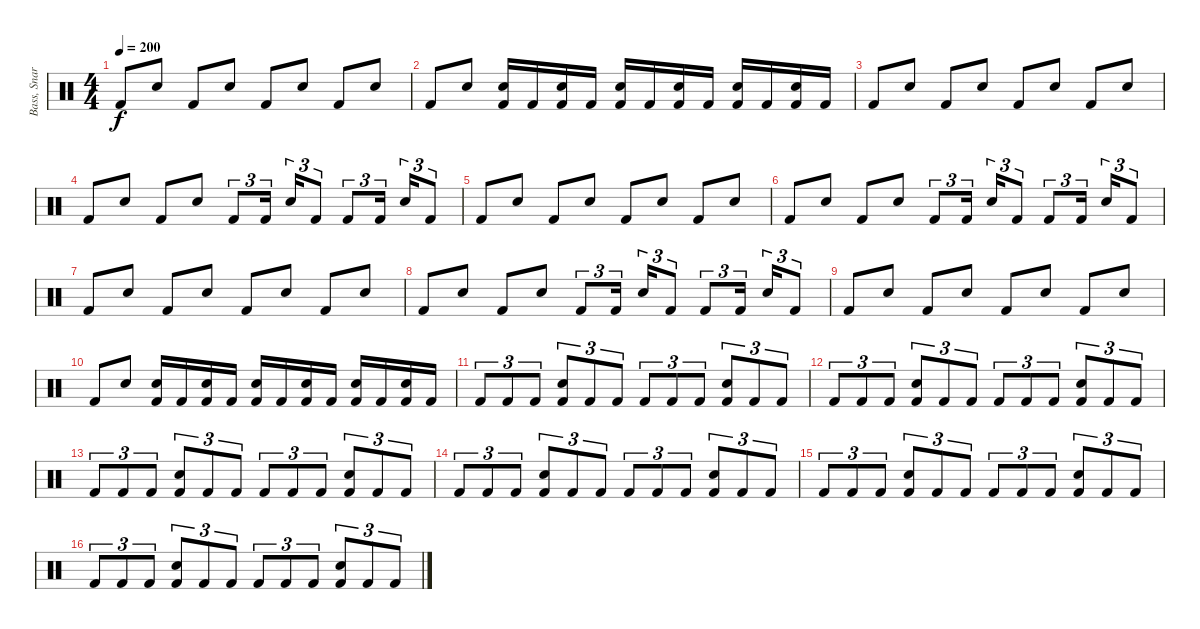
\track ("Bass, Snare & Toms" "Bass, Snar") {instrument percussion}
\staff {score}
\articulation defaults
\ts (4 4)
\tempo 200
\clef neutral
\ks c "Kick (hit) 2".8{dy f} "Electric Snare (hit)".8 "Kick (hit) 2".8 "Electric Snare (hit)".8 "Kick (hit) 2".8 "Electric Snare (hit)".8 "Kick (hit) 2".8 "Electric Snare (hit)".8
|
"Kick (hit) 2".8 "Electric Snare (hit)".8 ("Electric Snare (hit)" "Kick (hit) 2").16 "Kick (hit) 2".16 ("Electric Snare (hit)" "Kick (hit) 2").16 "Kick (hit) 2".16 ("Electric Snare (hit)" "Kick (hit) 2").16 "Kick (hit) 2".16 ("Electric Snare (hit)" "Kick (hit) 2").16 "Kick (hit) 2".16 ("Electric Snare (hit)" "Kick (hit) 2").16 "Kick (hit) 2".16 ("Electric Snare (hit)" "Kick (hit) 2").16 "Kick (hit) 2".16 |
"Kick (hit) 2".8 "Electric Snare (hit)".8 "Kick (hit) 2".8 "Electric Snare (hit)".8 "Kick (hit) 2".8 "Electric Snare (hit)".8 "Kick (hit) 2".8 "Electric Snare (hit)".8 |
"Kick (hit) 2".8 "Electric Snare (hit)".8 "Kick (hit) 2".8 "Electric Snare (hit)".8 "Kick (hit) 2".8{tu (3 2)} "Kick (hit) 2".16{tu (3 2)} "Electric Snare (hit)".16{tu (3 2)} "Kick (hit) 2".8{tu (3 2)} "Kick (hit) 2".8{tu (3 2)} "Kick (hit) 2".16{tu (3 2)} "Electric Snare (hit)".16{tu (3 2)} "Kick (hit) 2".8{tu (3 2)} |
"Kick (hit) 2".8 "Electric Snare (hit)".8 "Kick (hit) 2".8 "Electric Snare (hit)".8 "Kick (hit) 2".8 "Electric Snare (hit)".8 "Kick (hit) 2".8 "Electric Snare (hit)".8 |
"Kick (hit) 2".8 "Electric Snare (hit)".8 "Kick (hit) 2".8 "Electric Snare (hit)".8 "Kick (hit) 2".8{tu (3 2)} "Kick (hit) 2".16{tu (3 2)} "Electric Snare (hit)".16{tu (3 2)} "Kick (hit) 2".8{tu (3 2)} "Kick (hit) 2".8{tu (3 2)} "Kick (hit) 2".16{tu (3 2)} "Electric Snare (hit)".16{tu (3 2)} "Kick (hit) 2".8{tu (3 2)} |
"Kick (hit) 2".8 "Electric Snare (hit)".8 "Kick (hit) 2".8 "Electric Snare (hit)".8 "Kick (hit) 2".8 "Electric Snare (hit)".8 "Kick (hit) 2".8 "Electric Snare (hit)".8 |
"Kick (hit) 2".8 "Electric Snare (hit)".8 "Kick (hit) 2".8 "Electric Snare (hit)".8 "Kick (hit) 2".8{tu (3 2)} "Kick (hit) 2".16{tu (3 2)} "Electric Snare (hit)".16{tu (3 2)} "Kick (hit) 2".8{tu (3 2)} "Kick (hit) 2".8{tu (3 2)} "Kick (hit) 2".16{tu (3 2)} "Electric Snare (hit)".16{tu (3 2)} "Kick (hit) 2".8{tu (3 2)} |
"Kick (hit) 2".8 "Electric Snare (hit)".8 "Kick (hit) 2".8 "Electric Snare (hit)".8 "Kick (hit) 2".8 "Electric Snare (hit)".8 "Kick (hit) 2".8 "Electric Snare (hit)".8 |
"Kick (hit) 2".8 "Electric Snare (hit)".8 ("Electric Snare (hit)" "Kick (hit) 2").16 "Kick (hit) 2".16 ("Electric Snare (hit)" "Kick (hit) 2").16 "Kick (hit) 2".16 ("Electric Snare (hit)" "Kick (hit) 2").16 "Kick (hit) 2".16 ("Electric Snare (hit)" "Kick (hit) 2").16 "Kick (hit) 2".16 ("Electric Snare (hit)" "Kick (hit) 2").16 "Kick (hit) 2".16 ("Electric Snare (hit)" "Kick (hit) 2").16 "Kick (hit) 2".16 |
"Kick (hit) 2".8{tu (3 2)} "Kick (hit) 2".8{tu (3 2)} "Kick (hit) 2".8{tu (3 2)} ("Electric Snare (hit)" "Kick (hit) 2").8{tu (3 2)} "Kick (hit) 2".8{tu (3 2)} "Kick (hit) 2".8{tu (3 2)} "Kick (hit) 2".8{tu (3 2)} "Kick (hit) 2".8{tu (3 2)} "Kick (hit) 2".8{tu (3 2)} ("Electric Snare (hit)" "Kick (hit) 2").8{tu (3 2)} "Kick (hit) 2".8{tu (3 2)} "Kick (hit) 2".8{tu (3 2)} |
"Kick (hit) 2".8{tu (3 2)} "Kick (hit) 2".8{tu (3 2)} "Kick (hit) 2".8{tu (3 2)} ("Electric Snare (hit)" "Kick (hit) 2").8{tu (3 2)} "Kick (hit) 2".8{tu (3 2)} "Kick (hit) 2".8{tu (3 2)} "Kick (hit) 2".8{tu (3 2)} "Kick (hit) 2".8{tu (3 2)} "Kick (hit) 2".8{tu (3 2)} ("Electric Snare (hit)" "Kick (hit) 2").8{tu (3 2)} "Kick (hit) 2".8{tu (3 2)} "Kick (hit) 2".8{tu (3 2)} |
"Kick (hit) 2".8{tu (3 2)} "Kick (hit) 2".8{tu (3 2)} "Kick (hit) 2".8{tu (3 2)} ("Electric Snare (hit)" "Kick (hit) 2").8{tu (3 2)} "Kick (hit) 2".8{tu (3 2)} "Kick (hit) 2".8{tu (3 2)} "Kick (hit) 2".8{tu (3 2)} "Kick (hit) 2".8{tu (3 2)} "Kick (hit) 2".8{tu (3 2)} ("Electric Snare (hit)" "Kick (hit) 2").8{tu (3 2)} "Kick (hit) 2".8{tu (3 2)} "Kick (hit) 2".8{tu (3 2)} |
"Kick (hit) 2".8{tu (3 2)} "Kick (hit) 2".8{tu (3 2)} "Kick (hit) 2".8{tu (3 2)} ("Electric Snare (hit)" "Kick (hit) 2").8{tu (3 2)} "Kick (hit) 2".8{tu (3 2)} "Kick (hit) 2".8{tu (3 2)} "Kick (hit) 2".8{tu (3 2)} "Kick (hit) 2".8{tu (3 2)} "Kick (hit) 2".8{tu (3 2)} ("Electric Snare (hit)" "Kick (hit) 2").8{tu (3 2)} "Kick (hit) 2".8{tu (3 2)} "Kick (hit) 2".8{tu (3 2)} |
"Kick (hit) 2".8{tu (3 2)} "Kick (hit) 2".8{tu (3 2)} "Kick (hit) 2".8{tu (3 2)} ("Electric Snare (hit)" "Kick (hit) 2").8{tu (3 2)} "Kick (hit) 2".8{tu (3 2)} "Kick (hit) 2".8{tu (3 2)} "Kick (hit) 2".8{tu (3 2)} "Kick (hit) 2".8{tu (3 2)} "Kick (hit) 2".8{tu (3 2)} ("Electric Snare (hit)" "Kick (hit) 2").8{tu (3 2)} "Kick (hit) 2".8{tu (3 2)} "Kick (hit) 2".8{tu (3 2)} |
"Kick (hit) 2".8{tu (3 2)} "Kick (hit) 2".8{tu (3 2)} "Kick (hit) 2".8{tu (3 2)} ("Electric Snare (hit)" "Kick (hit) 2").8{tu (3 2)} "Kick (hit) 2".8{tu (3 2)} "Kick (hit) 2".8{tu (3 2)} "Kick (hit) 2".8{tu (3 2)} "Kick (hit) 2".8{tu (3 2)} "Kick (hit) 2".8{tu (3 2)} ("Electric Snare (hit)" "Kick (hit) 2").8{tu (3 2)} "Kick (hit) 2".8{tu (3 2)} "Kick (hit) 2".8{tu (3 2)}
